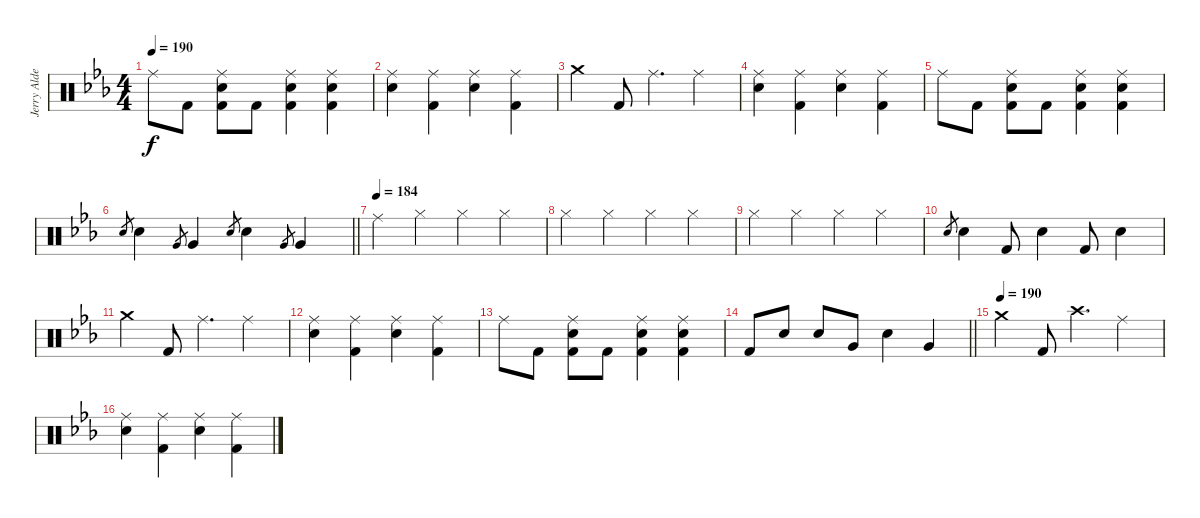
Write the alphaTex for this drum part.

\track ("Jerry Alder - Drums" "Jerry Alde") {instrument percussion}
\staff {score}
\articulation defaults
\ts (4 4)
\tempo 190
\clef neutral
\ks eb "Ride (middle)".8{dy f} "Kick (hit) 2".8
("Ride (middle)" "Snare (hit) 2" "Kick (hit) 2").8 "Kick (hit) 2".8 ("Ride (middle)" "Snare (hit) 2" "Kick (hit) 2").4 ("Ride (middle)" "Snare (hit) 2" "Kick (hit) 2").4 |
("Ride (middle)" "Snare (hit) 2").4 ("Ride (middle)" "Kick (hit) 2").4 ("Ride (middle)" "Snare (hit) 2").4 ("Ride (middle)" "Kick (hit) 2").4 |
"Crash medium (hit)".4 "Kick (hit) 2".8 "Ride (middle)".4{d} "Ride (middle)".4 |
("Ride (middle)" "Snare (hit) 2").4 ("Ride (middle)" "Kick (hit) 2").4 ("Ride (middle)" "Snare (hit) 2").4 ("Ride (middle)" "Kick (hit) 2").4 |
"Ride (middle)".8 "Kick (hit) 2".8 ("Ride (middle)" "Snare (hit) 2" "Kick (hit) 2").8 "Kick (hit) 2".8 ("Ride (middle)" "Snare (hit) 2" "Kick (hit) 2").4 ("Ride (middle)" "Snare (hit) 2" "Kick (hit) 2").4 |
\barLineRight lightlight "Snare (hit) 2".8{gr} "Snare (hit) 2".4 "Very Low Tom (hit)".8{gr} "Very Low Tom (hit)".4 "Snare (hit) 2".8{gr} "Snare (hit) 2".4 "Very Low Tom (hit)".8{gr} "Very Low Tom (hit)".4
|
\tempo (184)
"Ride (middle)".4 "Hi-Hat (closed)".4 "Hi-Hat (closed)".4 "Hi-Hat (closed)".4 |
"Hi-Hat (closed)".4 "Hi-Hat (closed)".4 "Hi-Hat (closed)".4 "Hi-Hat (closed)".4 |
"Hi-Hat (closed)".4 "Hi-Hat (closed)".4 "Hi-Hat (closed)".4 "Hi-Hat (closed)".4 |
"Snare (hit) 2".8{gr} "Snare (hit) 2".4 "Kick (hit) 2".8 "Snare (hit) 2".4 "Kick (hit) 2".8 "Snare (hit) 2".4 |
"Crash medium (hit)".4 "Kick (hit) 2".8 "Ride (middle)".4{d} "Ride (middle)".4 |
("Ride (middle)" "Snare (hit) 2").4 ("Ride (middle)" "Kick (hit) 2").4 ("Ride (middle)" "Snare (hit) 2").4 ("Ride (middle)" "Kick (hit) 2").4 |
"Ride (middle)".8 "Kick (hit) 2".8 ("Ride (middle)" "Snare (hit) 2" "Kick (hit) 2").8 "Kick (hit) 2".8 ("Ride (middle)" "Snare (hit) 2" "Kick (hit) 2").4 ("Ride (middle)" "Snare (hit) 2" "Kick (hit) 2").4 |
\barLineRight lightlight "Kick (hit) 2".8 "Snare (hit) 2".8 "Snare (hit) 2".8 "Very Low Tom (hit)".8 "Snare (hit) 2".4 "Very Low Tom (hit)".4
|
\tempo (190)
"Crash medium (hit)".4 "Kick (hit) 2".8 "Crash high (hit)".4{d} "Ride (middle)".4 |
("Ride (middle)" "Snare (hit) 2").4 ("Ride (middle)" "Kick (hit) 2").4 ("Ride (middle)" "Snare (hit) 2").4 ("Ride (middle)" "Kick (hit) 2").4
